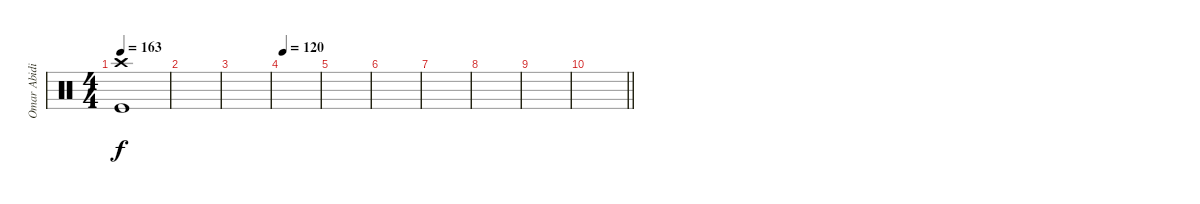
\track ("Omar Abidi" "Omar Abidi") {instrument percussion}
\staff {score}
\articulation defaults
\ts (4 4)
\tempo 163
\clef neutral
\ks c
("Crash high (hit)" "Kick (hit)").1{dy f} |
|
|
\tempo 120
|
|
|
|
|
|
\barLineRight lightlight
